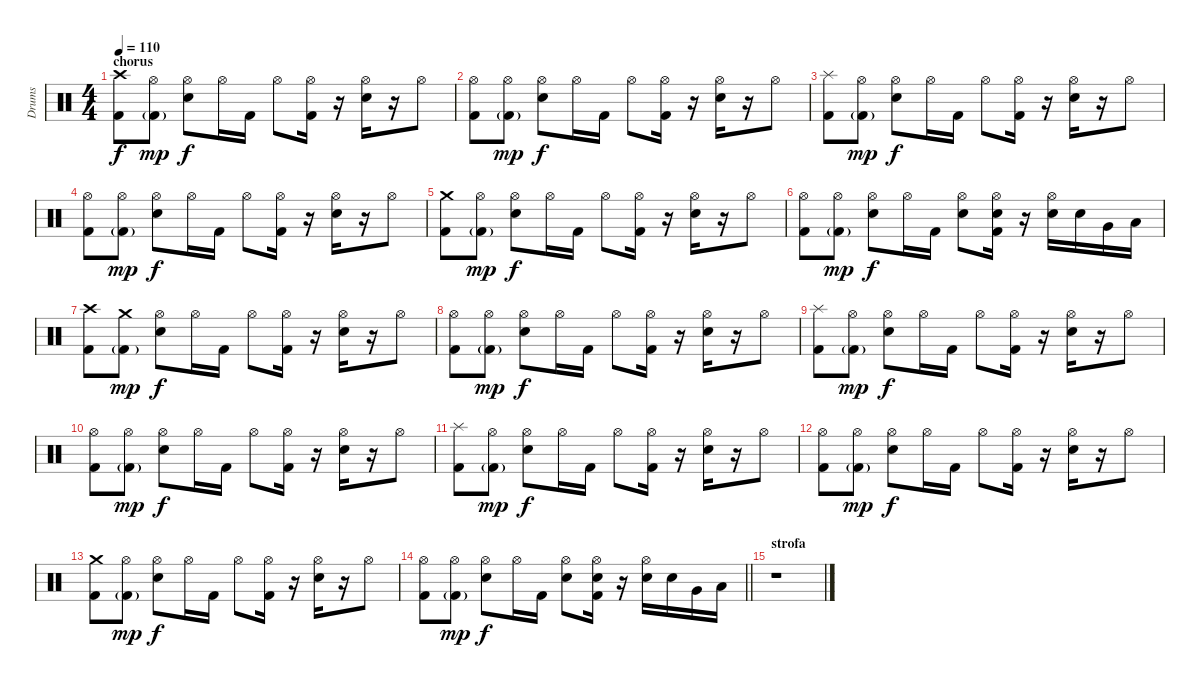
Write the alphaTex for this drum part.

\track ("Drums" "Drums") {instrument percussion}
\staff {score}
\articulation defaults
\ts (4 4)
\section ("" "chorus")
\tempo 110
\clef neutral
\ks c
("Crash high (hit)" "Kick (hit) 2").8{dy f} ("Hi-Hat (open)" "Kick (hit) 2"{g}).8{dy mp} ("Hi-Hat (open)" "Electric Snare (hit)").8{dy f} "Hi-Hat (open)".16 "Kick (hit) 2".16 "Hi-Hat (open)".8 ("Hi-Hat (open)" "Kick (hit) 2").16 r.16 ("Hi-Hat (open)" "Electric Snare (hit)").16 r.16 "Hi-Hat (open)".8 |
("Hi-Hat (open)" "Kick (hit) 2").8 ("Hi-Hat (open)" "Kick (hit) 2"{g}).8{dy mp} ("Hi-Hat (open)" "Electric Snare (hit)").8{dy f} "Hi-Hat (open)".16 "Kick (hit) 2".16 "Hi-Hat (open)".8 ("Hi-Hat (open)" "Kick (hit) 2").16 r.16 ("Hi-Hat (open)" "Electric Snare (hit)").16 r.16 "Hi-Hat (open)".8 |
("Splash (hit)" "Kick (hit) 2").8 ("Hi-Hat (open)" "Kick (hit) 2"{g}).8{dy mp} ("Hi-Hat (open)" "Electric Snare (hit)").8{dy f} "Hi-Hat (open)".16 "Kick (hit) 2".16 "Hi-Hat (open)".8 ("Hi-Hat (open)" "Kick (hit) 2").16 r.16 ("Hi-Hat (open)" "Electric Snare (hit)").16 r.16 "Hi-Hat (open)".8 |
("Hi-Hat (open)" "Kick (hit) 2").8 ("Hi-Hat (open)" "Kick (hit) 2"{g}).8{dy mp} ("Hi-Hat (open)" "Electric Snare (hit)").8{dy f} "Hi-Hat (open)".16 "Kick (hit) 2".16 "Hi-Hat (open)".8 ("Hi-Hat (open)" "Kick (hit) 2").16 r.16 ("Hi-Hat (open)" "Electric Snare (hit)").16 r.16 "Hi-Hat (open)".8 |
("Crash medium (hit)" "Kick (hit) 2").8 ("Hi-Hat (open)" "Kick (hit) 2"{g}).8{dy mp} ("Hi-Hat (open)" "Electric Snare (hit)").8{dy f} "Hi-Hat (open)".16 "Kick (hit) 2".16 "Hi-Hat (open)".8 ("Hi-Hat (open)" "Kick (hit) 2").16 r.16 ("Hi-Hat (open)" "Electric Snare (hit)").16 r.16 "Hi-Hat (open)".8 |
("Hi-Hat (open)" "Kick (hit) 2").8 ("Hi-Hat (open)" "Kick (hit) 2"{g}).8{dy mp} ("Hi-Hat (open)" "Electric Snare (hit)").8{dy f} "Hi-Hat (open)".16 "Kick (hit) 2".16 ("Hi-Hat (open)" "Electric Snare (hit)").8 ("Hi-Hat (open)" "Electric Snare (hit)" "Kick (hit) 2").16 r.16 ("Hi-Hat (open)" "Electric Snare (hit)").16 "Electric Snare (hit)".16 "Very Low Tom (hit)".16 "Low Tom (hit)".16 |
("Crash high (hit)" "Kick (hit) 2").8 ("Crash medium (hit)" "Kick (hit) 2"{g}).8{dy mp} ("Hi-Hat (open)" "Electric Snare (hit)").8{dy f} "Hi-Hat (open)".16 "Kick (hit) 2".16 "Hi-Hat (open)".8 ("Hi-Hat (open)" "Kick (hit) 2").16 r.16 ("Hi-Hat (open)" "Electric Snare (hit)").16 r.16 "Hi-Hat (open)".8 |
("Hi-Hat (open)" "Kick (hit) 2").8 ("Hi-Hat (open)" "Kick (hit) 2"{g}).8{dy mp} ("Hi-Hat (open)" "Electric Snare (hit)").8{dy f} "Hi-Hat (open)".16 "Kick (hit) 2".16 "Hi-Hat (open)".8 ("Hi-Hat (open)" "Kick (hit) 2").16 r.16 ("Hi-Hat (open)" "Electric Snare (hit)").16 r.16 "Hi-Hat (open)".8 |
("Splash (hit)" "Kick (hit) 2").8 ("Hi-Hat (open)" "Kick (hit) 2"{g}).8{dy mp} ("Hi-Hat (open)" "Electric Snare (hit)").8{dy f} "Hi-Hat (open)".16 "Kick (hit) 2".16 "Hi-Hat (open)".8 ("Hi-Hat (open)" "Kick (hit) 2").16 r.16 ("Hi-Hat (open)" "Electric Snare (hit)").16 r.16 "Hi-Hat (open)".8 |
("Hi-Hat (open)" "Kick (hit) 2").8 ("Hi-Hat (open)" "Kick (hit) 2"{g}).8{dy mp} ("Hi-Hat (open)" "Electric Snare (hit)").8{dy f} "Hi-Hat (open)".16 "Kick (hit) 2".16 "Hi-Hat (open)".8 ("Hi-Hat (open)" "Kick (hit) 2").16 r.16 ("Hi-Hat (open)" "Electric Snare (hit)").16 r.16 "Hi-Hat (open)".8 |
("Splash (hit)" "Kick (hit) 2").8 ("Hi-Hat (open)" "Kick (hit) 2"{g}).8{dy mp} ("Hi-Hat (open)" "Electric Snare (hit)").8{dy f} "Hi-Hat (open)".16 "Kick (hit) 2".16 "Hi-Hat (open)".8 ("Hi-Hat (open)" "Kick (hit) 2").16 r.16 ("Hi-Hat (open)" "Electric Snare (hit)").16 r.16 "Hi-Hat (open)".8 |
("Hi-Hat (open)" "Kick (hit) 2").8 ("Hi-Hat (open)" "Kick (hit) 2"{g}).8{dy mp} ("Hi-Hat (open)" "Electric Snare (hit)").8{dy f} "Hi-Hat (open)".16 "Kick (hit) 2".16 "Hi-Hat (open)".8 ("Hi-Hat (open)" "Kick (hit) 2").16 r.16 ("Hi-Hat (open)" "Electric Snare (hit)").16 r.16 "Hi-Hat (open)".8 |
("Crash medium (hit)" "Kick (hit) 2").8 ("Hi-Hat (open)" "Kick (hit) 2"{g}).8{dy mp} ("Hi-Hat (open)" "Electric Snare (hit)").8{dy f} "Hi-Hat (open)".16 "Kick (hit) 2".16 "Hi-Hat (open)".8 ("Hi-Hat (open)" "Kick (hit) 2").16 r.16 ("Hi-Hat (open)" "Electric Snare (hit)").16 r.16 "Hi-Hat (open)".8 |
\barLineRight lightlight
("Hi-Hat (open)" "Kick (hit) 2").8 ("Hi-Hat (open)" "Kick (hit) 2"{g}).8{dy mp} ("Hi-Hat (open)" "Electric Snare (hit)").8{dy f} "Hi-Hat (open)".16 "Kick (hit) 2".16 ("Hi-Hat (open)" "Electric Snare (hit)").8 ("Hi-Hat (open)" "Electric Snare (hit)" "Kick (hit) 2").16 r.16 ("Hi-Hat (open)" "Electric Snare (hit)").16 "Electric Snare (hit)".16 "Very Low Tom (hit)".16 "Low Tom (hit)".16 |
\section ("" "strofa")
r.1
